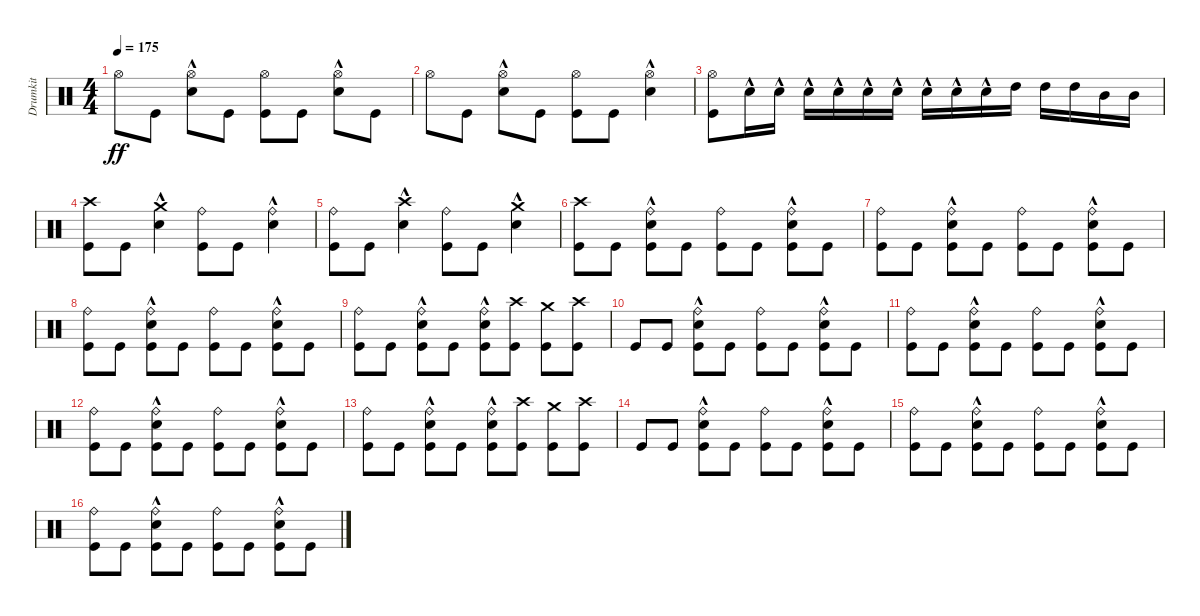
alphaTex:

\track ("Drumkit" "Drumkit") {instrument percussion}
\staff {score}
\articulation defaults
\ts (4 4)
\tempo 175
\clef neutral
\ks c "Hi-Hat (open)".8{dy ff} "Kick (hit)".8
("Snare (hit) 2"{hac} "Hi-Hat (open)").8 "Kick (hit)".8 ("Kick (hit)" "Hi-Hat (open)").8 "Kick (hit)".8 ("Snare (hit) 2"{hac} "Hi-Hat (open)").8 "Kick (hit)".8 |
"Hi-Hat (open)".8 "Kick (hit)".8 ("Snare (hit) 2"{hac} "Hi-Hat (open)").8 "Kick (hit)".8 ("Kick (hit)" "Hi-Hat (open)").8 "Kick (hit)".8 ("Snare (hit) 2"{hac} "Hi-Hat (open)").4 |
("Kick (hit)" "Hi-Hat (open)").8 "Snare (hit) 2"{hac}.16 "Snare (hit) 2"{hac}.16 "Snare (hit) 2"{hac}.16 "Snare (hit) 2"{hac}.16 "Snare (hit) 2"{hac}.16 "Snare (hit) 2"{hac}.16 "Snare (hit) 2"{hac}.16 "Snare (hit) 2"{hac}.16 "Snare (hit) 2"{hac}.16 "High Tom (hit)".16 "High Tom (hit)".16 "High Tom (hit)".16 "Mid Tom (hit)".16 "Mid Tom (hit)".16 |
("Kick (hit)" "Crash high (hit)").8 "Kick (hit)".8 ("Snare (hit) 2"{hac} "Crash medium (hit)").4 ("Kick (hit)" "Ride (bell)").8 "Kick (hit)".8 ("Snare (hit) 2"{hac} "Ride (bell)").4 |
("Kick (hit)" "Ride (bell)").8 "Kick (hit)".8 ("Snare (hit) 2"{hac} "Crash high (hit)").4 ("Kick (hit)" "Ride (bell)").8 "Kick (hit)".8 ("Snare (hit) 2"{hac} "Crash medium (hit)").4 |
("Kick (hit)" "Crash high (hit)").8 "Kick (hit)".8 ("Kick (hit)" "Snare (hit) 2"{hac} "Ride (bell)").8 "Kick (hit)".8 ("Kick (hit)" "Ride (bell)").8 "Kick (hit)".8 ("Kick (hit)" "Snare (hit) 2"{hac} "Ride (bell)").8 "Kick (hit)".8 |
("Kick (hit)" "Ride (bell)").8 "Kick (hit)".8 ("Kick (hit)" "Snare (hit) 2"{hac} "Ride (bell)").8 "Kick (hit)".8 ("Kick (hit)" "Ride (bell)").8 "Kick (hit)".8 ("Kick (hit)" "Snare (hit) 2"{hac} "Ride (bell)").8 "Kick (hit)".8 |
("Kick (hit)" "Ride (bell)").8 "Kick (hit)".8 ("Kick (hit)" "Snare (hit) 2"{hac} "Ride (bell)").8 "Kick (hit)".8 ("Kick (hit)" "Ride (bell)").8 "Kick (hit)".8 ("Kick (hit)" "Snare (hit) 2"{hac} "Ride (bell)").8 "Kick (hit)".8 |
("Kick (hit)" "Ride (bell)").8 "Kick (hit)".8 ("Kick (hit)" "Snare (hit) 2"{hac} "Ride (bell)").8 "Kick (hit)".8 ("Kick (hit)" "Ride (bell)" "Snare (hit) 2"{hac}).8 ("Kick (hit)" "Crash high (hit)").8 ("Kick (hit)" "Crash medium (hit)").8 ("Kick (hit)" "Crash high (hit)").8 |
"Kick (hit)".8 "Kick (hit)".8 ("Kick (hit)" "Snare (hit) 2"{hac} "Ride (bell)").8 "Kick (hit)".8 ("Kick (hit)" "Ride (bell)").8 "Kick (hit)".8 ("Kick (hit)" "Snare (hit) 2"{hac} "Ride (bell)").8 "Kick (hit)".8 |
("Kick (hit)" "Ride (bell)").8 "Kick (hit)".8 ("Kick (hit)" "Snare (hit) 2"{hac} "Ride (bell)").8 "Kick (hit)".8 ("Kick (hit)" "Ride (bell)").8 "Kick (hit)".8 ("Kick (hit)" "Snare (hit) 2"{hac} "Ride (bell)").8 "Kick (hit)".8 |
("Kick (hit)" "Ride (bell)").8 "Kick (hit)".8 ("Kick (hit)" "Snare (hit) 2"{hac} "Ride (bell)").8 "Kick (hit)".8 ("Kick (hit)" "Ride (bell)").8 "Kick (hit)".8 ("Kick (hit)" "Snare (hit) 2"{hac} "Ride (bell)").8 "Kick (hit)".8 |
("Kick (hit)" "Ride (bell)").8 "Kick (hit)".8 ("Kick (hit)" "Snare (hit) 2"{hac} "Ride (bell)").8 "Kick (hit)".8 ("Kick (hit)" "Ride (bell)" "Snare (hit) 2"{hac}).8 ("Kick (hit)" "Crash high (hit)").8 ("Kick (hit)" "Crash medium (hit)").8 ("Kick (hit)" "Crash high (hit)").8 |
"Kick (hit)".8 "Kick (hit)".8 ("Kick (hit)" "Snare (hit) 2"{hac} "Ride (bell)").8 "Kick (hit)".8 ("Kick (hit)" "Ride (bell)").8 "Kick (hit)".8 ("Kick (hit)" "Snare (hit) 2"{hac} "Ride (bell)").8 "Kick (hit)".8 |
("Kick (hit)" "Ride (bell)").8 "Kick (hit)".8 ("Kick (hit)" "Snare (hit) 2"{hac} "Ride (bell)").8 "Kick (hit)".8 ("Kick (hit)" "Ride (bell)").8 "Kick (hit)".8 ("Kick (hit)" "Snare (hit) 2"{hac} "Ride (bell)").8 "Kick (hit)".8 |
("Kick (hit)" "Ride (bell)").8 "Kick (hit)".8 ("Kick (hit)" "Snare (hit) 2"{hac} "Ride (bell)").8 "Kick (hit)".8 ("Kick (hit)" "Ride (bell)").8 "Kick (hit)".8 ("Kick (hit)" "Snare (hit) 2"{hac} "Ride (bell)").8 "Kick (hit)".8
